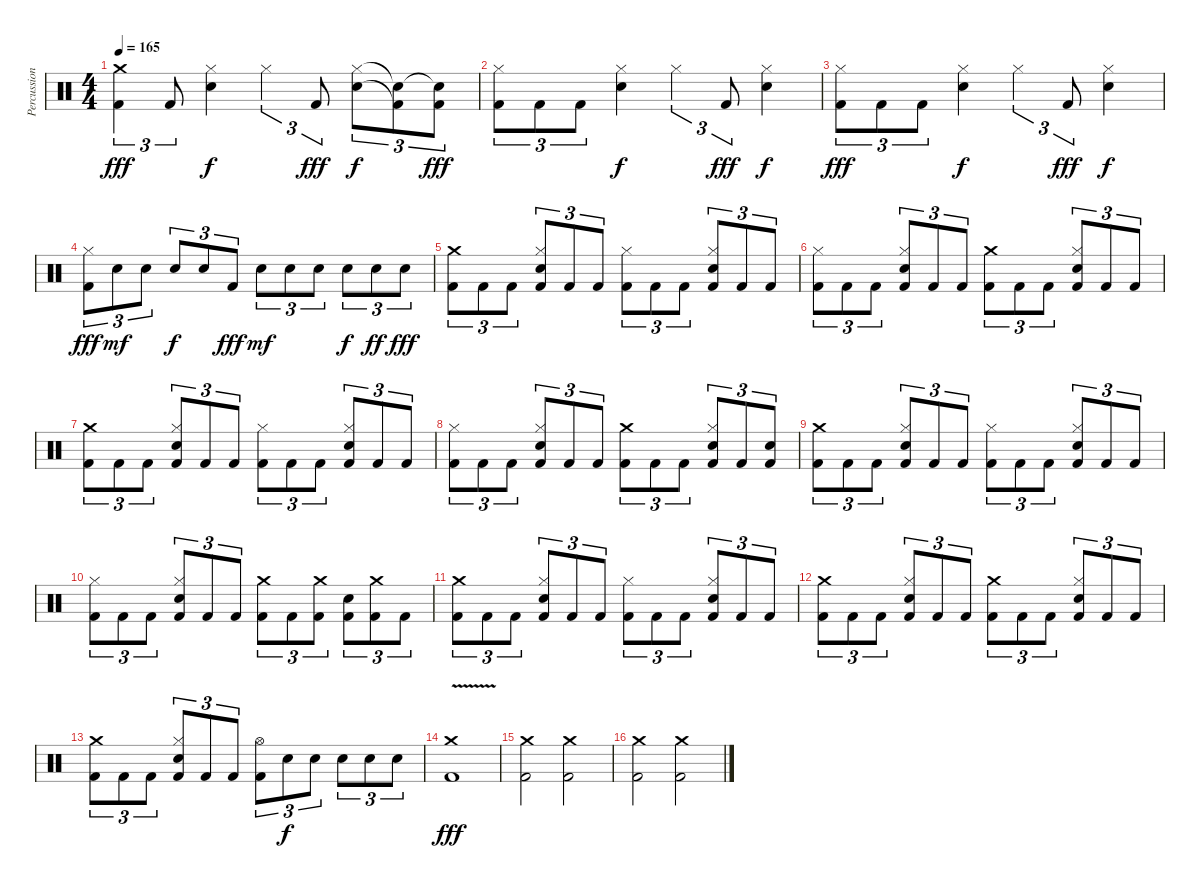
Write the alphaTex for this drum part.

\track ("Percussion" "Percussion") {instrument percussion}
\staff {score}
\articulation defaults
\ts (4 4)
\tempo 165
\clef neutral
\ks c
("Crash medium (hit)" "Kick (hit) 2").4{tu (3 2) dy fff} "Kick (hit) 2".8{tu (3 2)} ("Hi-Hat (closed)" "Electric Snare (hit)").4{dy f} "Hi-Hat (closed)".4{tu (3 2)} "Kick (hit) 2".8{tu (3 2) dy fff} ("Hi-Hat (closed)" "Electric Snare (hit)").8{tu (3 2) dy f} ("Snare (hit)"{t} "Kick (hit) 2"{t}).8{tu (3 2)} ("Snare (hit)"{t} "Kick (hit) 2").8{tu (3 2) dy fff} |
("Hi-Hat (closed)" "Kick (hit) 2").8{tu (3 2)} "Kick (hit) 2".8{tu (3 2)} "Kick (hit) 2".8{tu (3 2)} ("Hi-Hat (closed)" "Electric Snare (hit)").4{dy f} "Hi-Hat (closed)".4{tu (3 2)} "Kick (hit) 2".8{tu (3 2) dy fff} ("Hi-Hat (closed)" "Electric Snare (hit)").4{dy f} |
("Hi-Hat (closed)" "Kick (hit) 2").8{tu (3 2) dy fff} "Kick (hit) 2".8{tu (3 2)} "Kick (hit) 2".8{tu (3 2)} ("Hi-Hat (closed)" "Electric Snare (hit)").4{dy f} "Hi-Hat (closed)".4{tu (3 2)} "Kick (hit) 2".8{tu (3 2) dy fff} ("Hi-Hat (closed)" "Electric Snare (hit)").4{dy f} |
("Hi-Hat (closed)" "Kick (hit) 2").8{tu (3 2) dy fff} "Electric Snare (hit)".8{tu (3 2) dy mf} "Electric Snare (hit)".8{tu (3 2)} "Electric Snare (hit)".8{tu (3 2) dy f} "Electric Snare (hit)".8{tu (3 2)} "Kick (hit) 2".8{tu (3 2) dy fff} "Electric Snare (hit)".8{tu (3 2) dy mf} "Electric Snare (hit)".8{tu (3 2)} "Electric Snare (hit)".8{tu (3 2)} "Electric Snare (hit)".8{tu (3 2) dy f} "Electric Snare (hit)".8{tu (3 2) dy ff} "Electric Snare (hit)".8{tu (3 2) dy fff} |
("Crash medium (hit)" "Kick (hit) 2").8{tu (3 2)} "Kick (hit) 2".8{tu (3 2)} "Kick (hit) 2".8{tu (3 2)} ("Hi-Hat (closed)" "Electric Snare (hit)" "Kick (hit) 2").8{tu (3 2)} "Kick (hit) 2".8{tu (3 2)} "Kick (hit) 2".8{tu (3 2)} ("Hi-Hat (closed)" "Kick (hit) 2").8{tu (3 2)} "Kick (hit) 2".8{tu (3 2)} "Kick (hit) 2".8{tu (3 2)} ("Hi-Hat (closed)" "Electric Snare (hit)" "Kick (hit) 2").8{tu (3 2)} "Kick (hit) 2".8{tu (3 2)} "Kick (hit) 2".8{tu (3 2)} |
("Hi-Hat (closed)" "Kick (hit) 2").8{tu (3 2)} "Kick (hit) 2".8{tu (3 2)} "Kick (hit) 2".8{tu (3 2)} ("Hi-Hat (closed)" "Electric Snare (hit)" "Kick (hit) 2").8{tu (3 2)} "Kick (hit) 2".8{tu (3 2)} "Kick (hit) 2".8{tu (3 2)} ("Crash medium (hit)" "Kick (hit) 2").8{tu (3 2)} "Kick (hit) 2".8{tu (3 2)} "Kick (hit) 2".8{tu (3 2)} ("Hi-Hat (closed)" "Electric Snare (hit)" "Kick (hit) 2").8{tu (3 2)} "Kick (hit) 2".8{tu (3 2)} "Kick (hit) 2".8{tu (3 2)} |
("Crash medium (hit)" "Kick (hit) 2").8{tu (3 2)} "Kick (hit) 2".8{tu (3 2)} "Kick (hit) 2".8{tu (3 2)} ("Hi-Hat (closed)" "Electric Snare (hit)" "Kick (hit) 2").8{tu (3 2)} "Kick (hit) 2".8{tu (3 2)} "Kick (hit) 2".8{tu (3 2)} ("Hi-Hat (closed)" "Kick (hit) 2").8{tu (3 2)} "Kick (hit) 2".8{tu (3 2)} "Kick (hit) 2".8{tu (3 2)} ("Hi-Hat (closed)" "Electric Snare (hit)" "Kick (hit) 2").8{tu (3 2)} "Kick (hit) 2".8{tu (3 2)} "Kick (hit) 2".8{tu (3 2)} |
("Hi-Hat (closed)" "Kick (hit) 2").8{tu (3 2)} "Kick (hit) 2".8{tu (3 2)} "Kick (hit) 2".8{tu (3 2)} ("Hi-Hat (closed)" "Electric Snare (hit)" "Kick (hit) 2").8{tu (3 2)} "Kick (hit) 2".8{tu (3 2)} "Kick (hit) 2".8{tu (3 2)} ("Crash medium (hit)" "Kick (hit) 2").8{tu (3 2)} "Kick (hit) 2".8{tu (3 2)} "Kick (hit) 2".8{tu (3 2)} ("Hi-Hat (closed)" "Electric Snare (hit)" "Kick (hit) 2").8{tu (3 2)} "Kick (hit) 2".8{tu (3 2)} ("Electric Snare (hit)" "Kick (hit) 2").8{tu (3 2)} |
("Crash medium (hit)" "Kick (hit) 2").8{tu (3 2)} "Kick (hit) 2".8{tu (3 2)} "Kick (hit) 2".8{tu (3 2)} ("Hi-Hat (closed)" "Electric Snare (hit)" "Kick (hit) 2").8{tu (3 2)} "Kick (hit) 2".8{tu (3 2)} "Kick (hit) 2".8{tu (3 2)} ("Hi-Hat (closed)" "Kick (hit) 2").8{tu (3 2)} "Kick (hit) 2".8{tu (3 2)} "Kick (hit) 2".8{tu (3 2)} ("Hi-Hat (closed)" "Electric Snare (hit)" "Kick (hit) 2").8{tu (3 2)} "Kick (hit) 2".8{tu (3 2)} "Kick (hit) 2".8{tu (3 2)} |
("Hi-Hat (closed)" "Kick (hit) 2").8{tu (3 2)} "Kick (hit) 2".8{tu (3 2)} "Kick (hit) 2".8{tu (3 2)} ("Hi-Hat (closed)" "Electric Snare (hit)" "Kick (hit) 2").8{tu (3 2)} "Kick (hit) 2".8{tu (3 2)} "Kick (hit) 2".8{tu (3 2)} ("Crash medium (hit)" "Kick (hit) 2").8{tu (3 2)} "Kick (hit) 2".8{tu (3 2)} ("Crash medium (hit)" "Kick (hit) 2").8{tu (3 2)} ("Electric Snare (hit)" "Kick (hit) 2").8{tu (3 2)} ("Crash medium (hit)" "Kick (hit) 2").8{tu (3 2)} "Kick (hit) 2".8{tu (3 2)} |
("Crash medium (hit)" "Kick (hit) 2").8{tu (3 2)} "Kick (hit) 2".8{tu (3 2)} "Kick (hit) 2".8{tu (3 2)} ("Hi-Hat (closed)" "Electric Snare (hit)" "Kick (hit) 2").8{tu (3 2)} "Kick (hit) 2".8{tu (3 2)} "Kick (hit) 2".8{tu (3 2)} ("Hi-Hat (closed)" "Kick (hit) 2").8{tu (3 2)} "Kick (hit) 2".8{tu (3 2)} "Kick (hit) 2".8{tu (3 2)} ("Hi-Hat (closed)" "Electric Snare (hit)" "Kick (hit) 2").8{tu (3 2)} "Kick (hit) 2".8{tu (3 2)} "Kick (hit) 2".8{tu (3 2)} |
("Crash medium (hit)" "Kick (hit) 2").8{tu (3 2)} "Kick (hit) 2".8{tu (3 2)} "Kick (hit) 2".8{tu (3 2)} ("Hi-Hat (closed)" "Electric Snare (hit)" "Kick (hit) 2").8{tu (3 2)} "Kick (hit) 2".8{tu (3 2)} "Kick (hit) 2".8{tu (3 2)} ("Crash medium (hit)" "Kick (hit) 2").8{tu (3 2)} "Kick (hit) 2".8{tu (3 2)} "Kick (hit) 2".8{tu (3 2)} ("Hi-Hat (closed)" "Electric Snare (hit)" "Kick (hit) 2").8{tu (3 2)} "Kick (hit) 2".8{tu (3 2)} "Kick (hit) 2".8{tu (3 2)} |
("Crash medium (hit)" "Kick (hit) 2").8{tu (3 2)} "Kick (hit) 2".8{tu (3 2)} "Kick (hit) 2".8{tu (3 2)} ("Hi-Hat (closed)" "Electric Snare (hit)" "Kick (hit) 2").8{tu (3 2)} "Kick (hit) 2".8{tu (3 2)} "Kick (hit) 2".8{tu (3 2)} ("Hi-Hat (open)" "Kick (hit) 2").8{tu (3 2)} "Electric Snare (hit)".8{tu (3 2) dy f} "Electric Snare (hit)".8{tu (3 2)} "Electric Snare (hit)".8{tu (3 2)} "Electric Snare (hit)".8{tu (3 2)} "Electric Snare (hit)".8{tu (3 2)} |
("Crash medium (hit)" "Kick (hit) 2"{v}).1{dy fff} |
("Crash medium (hit)" "Kick (hit) 2").2 ("Crash medium (hit)" "Kick (hit) 2").2 |
("Crash medium (hit)" "Kick (hit) 2").2 ("Crash medium (hit)" "Kick (hit) 2").2
